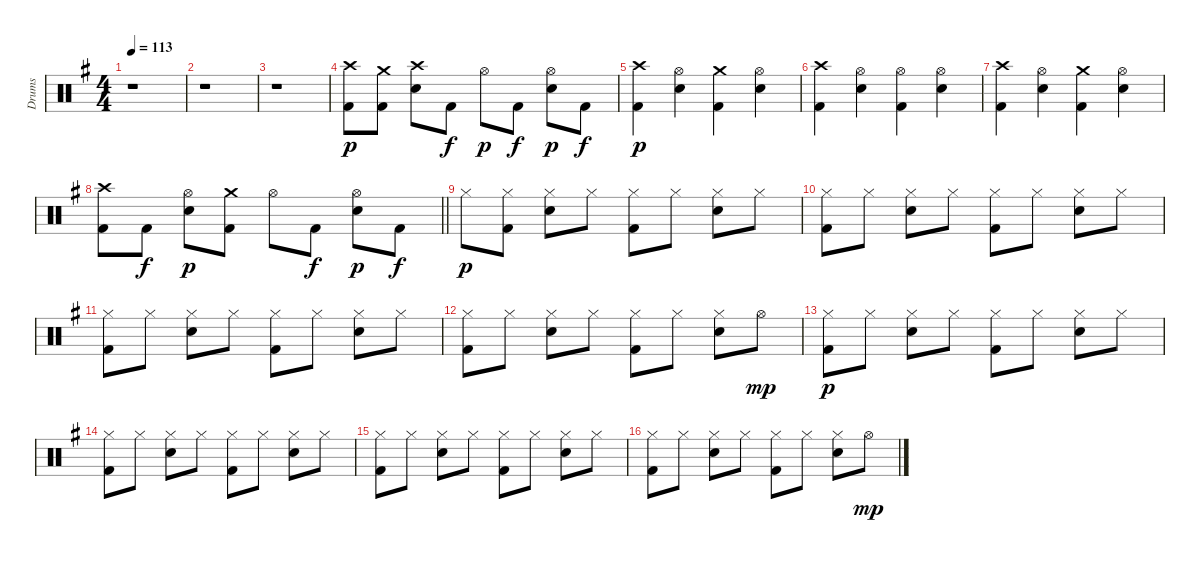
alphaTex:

\track ("Drums" "Drums") {instrument percussion}
\staff {score}
\articulation defaults
\ts (4 4)
\tempo 113
\clef neutral
\ks g
r.1{dy p} |
r.1 |
r.1 |
("Kick (hit) 2" "Crash high (hit)").8 ("Kick (hit) 2" "Crash medium (hit)").8 ("Electric Snare (hit)" "Crash high (hit)").8 "Kick (hit) 2".8{dy f} "Hi-Hat (open)".8{dy p} "Kick (hit) 2".8{dy f} ("Electric Snare (hit)" "Hi-Hat (open)").8{dy p} "Kick (hit) 2".8{dy f} |
("Crash high (hit)" "Kick (hit) 2").4{dy p} ("Hi-Hat (open)" "Electric Snare (hit)").4 ("Crash medium (hit)" "Kick (hit) 2").4 ("Hi-Hat (open)" "Electric Snare (hit)").4 |
("Crash high (hit)" "Kick (hit) 2").4 ("Hi-Hat (open)" "Electric Snare (hit)").4 ("Hi-Hat (open)" "Kick (hit) 2").4 ("Hi-Hat (open)" "Electric Snare (hit)").4 |
("Crash high (hit)" "Kick (hit) 2").4 ("Hi-Hat (open)" "Electric Snare (hit)").4 ("Crash medium (hit)" "Kick (hit) 2").4 ("Hi-Hat (open)" "Electric Snare (hit)").4 |
\barLineRight lightlight
("Kick (hit) 2" "Crash high (hit)").8 "Kick (hit) 2".8{dy f} ("Electric Snare (hit)" "Hi-Hat (open)").8{dy p} ("Kick (hit) 2" "Crash medium (hit)").8 "Hi-Hat (open)".8 "Kick (hit) 2".8{dy f} ("Electric Snare (hit)" "Hi-Hat (open)").8{dy p} "Kick (hit) 2".8{dy f} |
"Hi-Hat (closed)".8{dy p} ("Hi-Hat (closed)" "Kick (hit) 2").8 ("Hi-Hat (closed)" "Electric Snare (hit)").8 "Hi-Hat (closed)".8 ("Hi-Hat (closed)" "Kick (hit) 2").8 "Hi-Hat (closed)".8 ("Hi-Hat (closed)" "Electric Snare (hit)").8 "Hi-Hat (closed)".8 |
("Hi-Hat (closed)" "Kick (hit) 2").8 "Hi-Hat (closed)".8 ("Hi-Hat (closed)" "Electric Snare (hit)").8 "Hi-Hat (closed)".8 ("Hi-Hat (closed)" "Kick (hit) 2").8 "Hi-Hat (closed)".8 ("Hi-Hat (closed)" "Electric Snare (hit)").8 "Hi-Hat (closed)".8 |
("Hi-Hat (closed)" "Kick (hit) 2").8 "Hi-Hat (closed)".8 ("Hi-Hat (closed)" "Electric Snare (hit)").8 "Hi-Hat (closed)".8 ("Hi-Hat (closed)" "Kick (hit) 2").8 "Hi-Hat (closed)".8 ("Hi-Hat (closed)" "Electric Snare (hit)").8 "Hi-Hat (closed)".8 |
("Hi-Hat (closed)" "Kick (hit) 2").8 "Hi-Hat (closed)".8 ("Hi-Hat (closed)" "Electric Snare (hit)").8 "Hi-Hat (closed)".8 ("Hi-Hat (closed)" "Kick (hit) 2").8 "Hi-Hat (closed)".8 ("Hi-Hat (closed)" "Electric Snare (hit)").8 "Hi-Hat (open)".8{dy mp} |
("Hi-Hat (closed)" "Kick (hit) 2").8{dy p} "Hi-Hat (closed)".8 ("Hi-Hat (closed)" "Electric Snare (hit)").8 "Hi-Hat (closed)".8 ("Hi-Hat (closed)" "Kick (hit) 2").8 "Hi-Hat (closed)".8 ("Hi-Hat (closed)" "Electric Snare (hit)").8 "Hi-Hat (closed)".8 |
("Hi-Hat (closed)" "Kick (hit) 2").8 "Hi-Hat (closed)".8 ("Hi-Hat (closed)" "Electric Snare (hit)").8 "Hi-Hat (closed)".8 ("Hi-Hat (closed)" "Kick (hit) 2").8 "Hi-Hat (closed)".8 ("Hi-Hat (closed)" "Electric Snare (hit)").8 "Hi-Hat (closed)".8 |
("Hi-Hat (closed)" "Kick (hit) 2").8 "Hi-Hat (closed)".8 ("Hi-Hat (closed)" "Electric Snare (hit)").8 "Hi-Hat (closed)".8 ("Hi-Hat (closed)" "Kick (hit) 2").8 "Hi-Hat (closed)".8 ("Hi-Hat (closed)" "Electric Snare (hit)").8 "Hi-Hat (closed)".8 |
("Hi-Hat (closed)" "Kick (hit) 2").8 "Hi-Hat (closed)".8 ("Hi-Hat (closed)" "Electric Snare (hit)").8 "Hi-Hat (closed)".8 ("Hi-Hat (closed)" "Kick (hit) 2").8 "Hi-Hat (closed)".8 ("Hi-Hat (closed)" "Electric Snare (hit)").8 "Hi-Hat (open)".8{dy mp}
